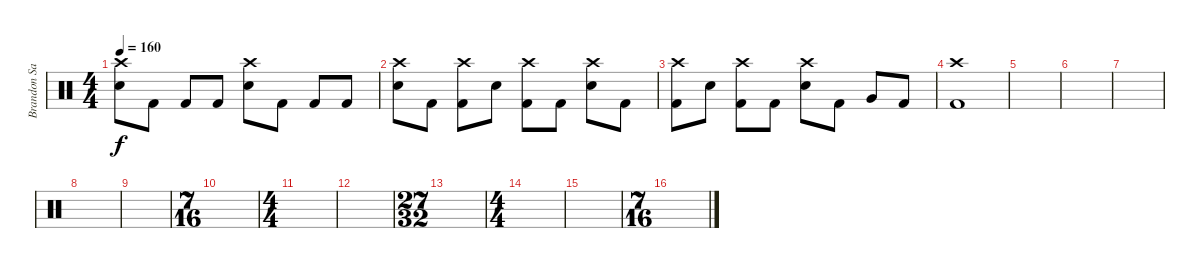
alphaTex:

\track ("Brandon Saller" "Brandon Sa") {instrument percussion}
\staff {score}
\articulation defaults
\ts (4 4)
\tempo 160
\clef neutral
\ks c
("Crash high (hit)" "Electric Snare (hit)").8{dy f} "Kick (hit) 2".8 "Kick (hit) 2".8 "Kick (hit) 2".8 ("Crash high (hit)" "Electric Snare (hit)").8 "Kick (hit) 2".8 "Kick (hit) 2".8 "Kick (hit) 2".8 |
("Crash high (hit)" "Electric Snare (hit)").8 "Kick (hit) 2".8 ("Crash high (hit)" "Kick (hit) 2").8 "Electric Snare (hit)".8 ("Crash high (hit)" "Kick (hit) 2").8 "Kick (hit) 2".8 ("Crash high (hit)" "Electric Snare (hit)").8 "Kick (hit) 2".8 |
("Crash high (hit)" "Kick (hit) 2").8 "Electric Snare (hit)".8 ("Crash high (hit)" "Kick (hit) 2").8 "Kick (hit) 2".8 ("Crash high (hit)" "Electric Snare (hit)").8 "Kick (hit) 2".8 "Very Low Tom (hit)".8 "Kick (hit) 2".8 |
("Crash high (hit)" "Kick (hit) 2").1 |
|
|
|
|
|
\ts (7 16)
|
\ts (4 4)
|
|
\ts (27 32)
|
\ts (4 4)
|
|
\ts (7 16)
